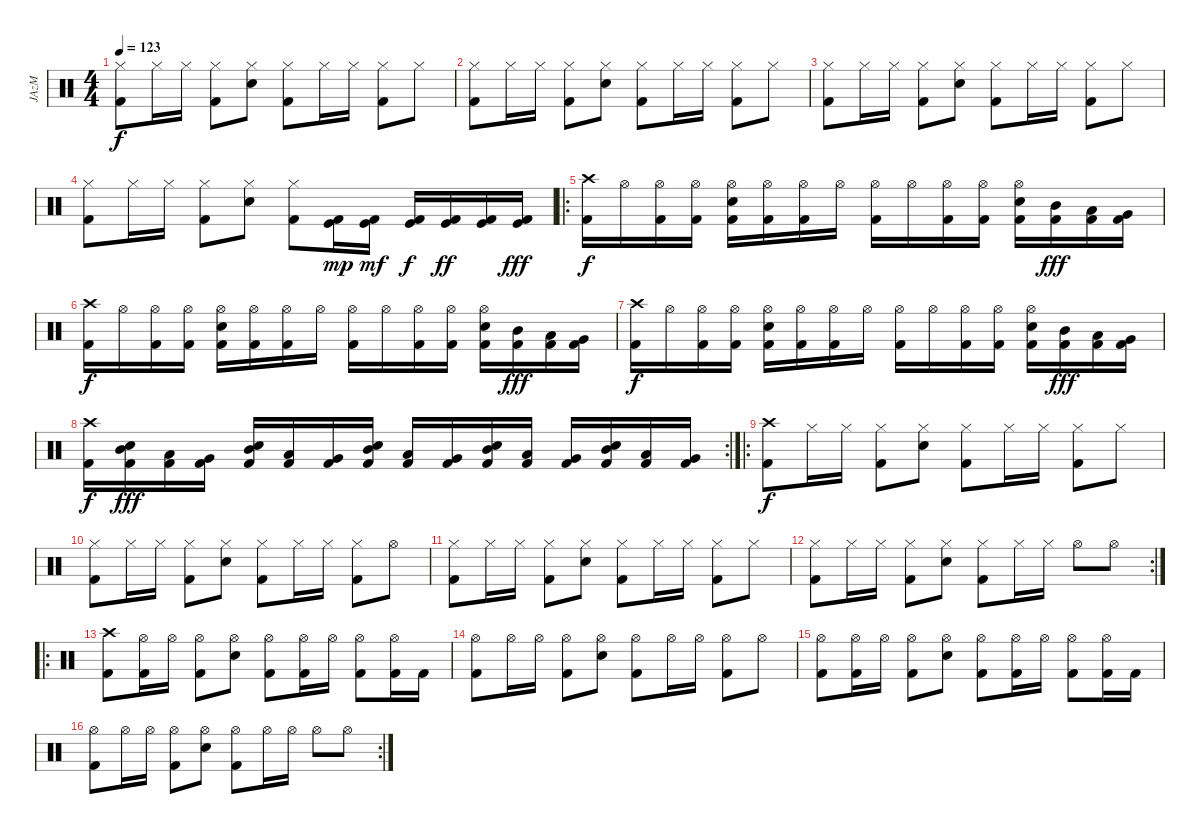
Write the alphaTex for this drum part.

\track ("JAzM" "JAzM") {instrument percussion}
\staff {score}
\articulation defaults
\ts (4 4)
\tempo 123
\clef neutral
\ks c
("Hi-Hat (closed)" "Kick (hit) 2").8{dy f} "Hi-Hat (closed)".16 "Hi-Hat (closed)".16 ("Hi-Hat (closed)" "Kick (hit) 2").8 ("Hi-Hat (closed)" "Electric Snare (hit)").8 ("Hi-Hat (closed)" "Kick (hit) 2").8 "Hi-Hat (closed)".16 "Hi-Hat (closed)".16 ("Hi-Hat (closed)" "Kick (hit) 2").8 "Hi-Hat (closed)".8 |
("Hi-Hat (closed)" "Kick (hit) 2").8 "Hi-Hat (closed)".16 "Hi-Hat (closed)".16 ("Hi-Hat (closed)" "Kick (hit) 2").8 ("Hi-Hat (closed)" "Electric Snare (hit)").8 ("Hi-Hat (closed)" "Kick (hit) 2").8 "Hi-Hat (closed)".16 "Hi-Hat (closed)".16 ("Hi-Hat (closed)" "Kick (hit) 2").8 "Hi-Hat (closed)".8 |
("Hi-Hat (closed)" "Kick (hit) 2").8 "Hi-Hat (closed)".16 "Hi-Hat (closed)".16 ("Hi-Hat (closed)" "Kick (hit) 2").8 ("Hi-Hat (closed)" "Electric Snare (hit)").8 ("Hi-Hat (closed)" "Kick (hit) 2").8 "Hi-Hat (closed)".16 "Hi-Hat (closed)".16 ("Hi-Hat (closed)" "Kick (hit) 2").8 "Hi-Hat (closed)".8 |
("Hi-Hat (closed)" "Kick (hit) 2").8 "Hi-Hat (closed)".16 "Hi-Hat (closed)".16 ("Hi-Hat (closed)" "Kick (hit) 2").8 ("Hi-Hat (closed)" "Electric Snare (hit)").8 ("Hi-Hat (closed)" "Kick (hit) 2").8 ("Kick (hit)" "Kick (hit) 2").16{dy mp} ("Kick (hit)" "Kick (hit) 2").16{dy mf} ("Kick (hit)" "Kick (hit) 2").16{dy f} ("Kick (hit)" "Kick (hit) 2").16{dy ff} ("Kick (hit)" "Kick (hit) 2").16 ("Kick (hit)" "Kick (hit) 2").16{dy fff} |
\ro
("Crash high (hit)" "Kick (hit) 2").16{dy f} "Hi-Hat (open)".16 ("Hi-Hat (open)" "Kick (hit) 2").16 ("Hi-Hat (open)" "Kick (hit) 2").16 ("Hi-Hat (open)" "Electric Snare (hit)" "Kick (hit) 2").16 ("Hi-Hat (open)" "Kick (hit) 2").16 ("Hi-Hat (open)" "Kick (hit) 2").16 "Hi-Hat (open)".16 ("Hi-Hat (open)" "Kick (hit) 2").16 "Hi-Hat (open)".16 ("Hi-Hat (open)" "Kick (hit) 2").16 ("Hi-Hat (open)" "Kick (hit) 2").16 ("Hi-Hat (open)" "Electric Snare (hit)" "Kick (hit) 2").16 ("Mid Tom (hit)" "Kick (hit) 2").16{dy fff} ("Low Tom (hit)" "Kick (hit) 2").16 ("Very Low Tom (hit)" "Kick (hit) 2").16 |
("Crash high (hit)" "Kick (hit) 2").16{dy f} "Hi-Hat (open)".16 ("Hi-Hat (open)" "Kick (hit) 2").16 ("Hi-Hat (open)" "Kick (hit) 2").16 ("Hi-Hat (open)" "Electric Snare (hit)" "Kick (hit) 2").16 ("Hi-Hat (open)" "Kick (hit) 2").16 ("Hi-Hat (open)" "Kick (hit) 2").16 "Hi-Hat (open)".16 ("Hi-Hat (open)" "Kick (hit) 2").16 "Hi-Hat (open)".16 ("Hi-Hat (open)" "Kick (hit) 2").16 ("Hi-Hat (open)" "Kick (hit) 2").16 ("Hi-Hat (open)" "Electric Snare (hit)" "Kick (hit) 2").16 ("Mid Tom (hit)" "Kick (hit) 2").16{dy fff} ("Low Tom (hit)" "Kick (hit) 2").16 ("Very Low Tom (hit)" "Kick (hit) 2").16 |
("Crash high (hit)" "Kick (hit) 2").16{dy f} "Hi-Hat (open)".16 ("Hi-Hat (open)" "Kick (hit) 2").16 ("Hi-Hat (open)" "Kick (hit) 2").16 ("Hi-Hat (open)" "Electric Snare (hit)" "Kick (hit) 2").16 ("Hi-Hat (open)" "Kick (hit) 2").16 ("Hi-Hat (open)" "Kick (hit) 2").16 "Hi-Hat (open)".16 ("Hi-Hat (open)" "Kick (hit) 2").16 "Hi-Hat (open)".16 ("Hi-Hat (open)" "Kick (hit) 2").16 ("Hi-Hat (open)" "Kick (hit) 2").16 ("Hi-Hat (open)" "Electric Snare (hit)" "Kick (hit) 2").16 ("Mid Tom (hit)" "Kick (hit) 2").16{dy fff} ("Low Tom (hit)" "Kick (hit) 2").16 ("Very Low Tom (hit)" "Kick (hit) 2").16 |
\rc 2
("Crash high (hit)" "Kick (hit) 2").16{dy f} ("Electric Snare (hit)" "Mid Tom (hit)" "Kick (hit) 2").16{dy fff} ("Low Tom (hit)" "Kick (hit) 2").16 ("Very Low Tom (hit)" "Kick (hit) 2").16 ("Electric Snare (hit)" "Mid Tom (hit)" "Kick (hit) 2").16 ("Low Tom (hit)" "Kick (hit) 2").16 ("Very Low Tom (hit)" "Kick (hit) 2").16 ("Electric Snare (hit)" "Mid Tom (hit)" "Kick (hit) 2").16 ("Low Tom (hit)" "Kick (hit) 2").16 ("Very Low Tom (hit)" "Kick (hit) 2").16 ("Electric Snare (hit)" "Mid Tom (hit)" "Kick (hit) 2").16 ("Low Tom (hit)" "Kick (hit) 2").16 ("Very Low Tom (hit)" "Kick (hit) 2").16 ("Electric Snare (hit)" "Mid Tom (hit)" "Kick (hit) 2").16 ("Low Tom (hit)" "Kick (hit) 2").16 ("Very Low Tom (hit)" "Kick (hit) 2").16 |
\ro
("Crash high (hit)" "Kick (hit) 2").8{dy f} "Hi-Hat (closed)".16 "Hi-Hat (closed)".16 ("Hi-Hat (closed)" "Kick (hit) 2").8 ("Hi-Hat (closed)" "Electric Snare (hit)").8 ("Hi-Hat (closed)" "Kick (hit) 2").8 "Hi-Hat (closed)".16 "Hi-Hat (closed)".16 ("Hi-Hat (closed)" "Kick (hit) 2").8 "Hi-Hat (closed)".8 |
("Hi-Hat (closed)" "Kick (hit) 2").8 "Hi-Hat (closed)".16 "Hi-Hat (closed)".16 ("Hi-Hat (closed)" "Kick (hit) 2").8 ("Hi-Hat (closed)" "Electric Snare (hit)").8 ("Hi-Hat (closed)" "Kick (hit) 2").8 "Hi-Hat (closed)".16 "Hi-Hat (closed)".16 ("Hi-Hat (closed)" "Kick (hit) 2").8 "Hi-Hat (open)".8 |
("Hi-Hat (closed)" "Kick (hit) 2").8 "Hi-Hat (closed)".16 "Hi-Hat (closed)".16 ("Hi-Hat (closed)" "Kick (hit) 2").8 ("Hi-Hat (closed)" "Electric Snare (hit)").8 ("Hi-Hat (closed)" "Kick (hit) 2").8 "Hi-Hat (closed)".16 "Hi-Hat (closed)".16 ("Hi-Hat (closed)" "Kick (hit) 2").8 "Hi-Hat (closed)".8 |
\rc 2
("Hi-Hat (closed)" "Kick (hit) 2").8 "Hi-Hat (closed)".16 "Hi-Hat (closed)".16 ("Hi-Hat (closed)" "Kick (hit) 2").8 ("Hi-Hat (closed)" "Electric Snare (hit)").8 ("Hi-Hat (closed)" "Kick (hit) 2").8 "Hi-Hat (closed)".16 "Hi-Hat (closed)".16 "Hi-Hat (open)".8 "Hi-Hat (open)".8 |
\ro
("Crash high (hit)" "Kick (hit) 2").8 ("Hi-Hat (open)" "Kick (hit) 2").16 "Hi-Hat (open)".16 ("Hi-Hat (open)" "Kick (hit) 2").8 ("Hi-Hat (open)" "Electric Snare (hit)").8 ("Hi-Hat (open)" "Kick (hit) 2").8 ("Hi-Hat (open)" "Kick (hit) 2").16 "Hi-Hat (open)".16 ("Hi-Hat (open)" "Kick (hit) 2").8 ("Hi-Hat (open)" "Kick (hit) 2").16 "Kick (hit) 2".16 |
("Hi-Hat (open)" "Kick (hit) 2").8 "Hi-Hat (open)".16 "Hi-Hat (open)".16 ("Hi-Hat (open)" "Kick (hit) 2").8 ("Hi-Hat (open)" "Electric Snare (hit)").8 ("Hi-Hat (open)" "Kick (hit) 2").8 "Hi-Hat (open)".16 "Hi-Hat (open)".16 ("Hi-Hat (open)" "Kick (hit) 2").8 "Hi-Hat (open)".8 |
("Hi-Hat (open)" "Kick (hit) 2").8 ("Hi-Hat (open)" "Kick (hit) 2").16 "Hi-Hat (open)".16 ("Hi-Hat (open)" "Kick (hit) 2").8 ("Hi-Hat (open)" "Electric Snare (hit)").8 ("Hi-Hat (open)" "Kick (hit) 2").8 ("Hi-Hat (open)" "Kick (hit) 2").16 "Hi-Hat (open)".16 ("Hi-Hat (open)" "Kick (hit) 2").8 ("Hi-Hat (open)" "Kick (hit) 2").16 "Kick (hit) 2".16 |
\rc 2
("Hi-Hat (open)" "Kick (hit) 2").8 "Hi-Hat (open)".16 "Hi-Hat (open)".16 ("Hi-Hat (open)" "Kick (hit) 2").8 ("Hi-Hat (open)" "Electric Snare (hit)").8 ("Hi-Hat (open)" "Kick (hit) 2").8 "Hi-Hat (open)".16 "Hi-Hat (open)".16 "Hi-Hat (open)".8 "Hi-Hat (open)".8
